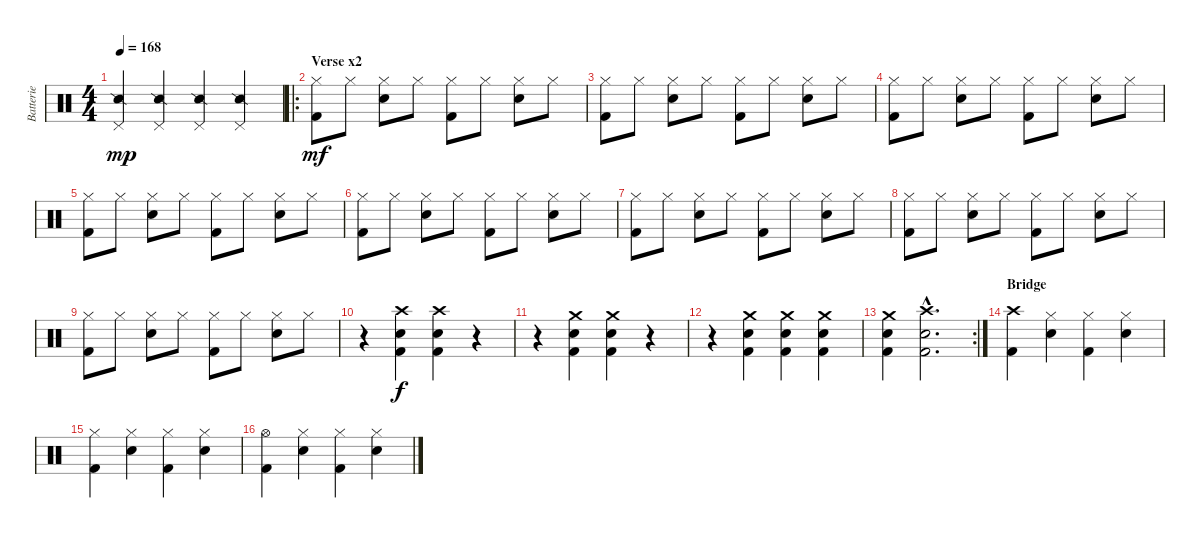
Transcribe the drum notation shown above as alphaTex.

\track ("Batterie" "Batterie") {instrument percussion}
\staff {score}
\articulation defaults
\ts (4 4)
\tempo 168
\clef neutral
\ks c
("Pedal Hi-Hat (hit)" "Snare (side stick) 2").4{dy mp} ("Pedal Hi-Hat (hit)" "Snare (side stick) 2").4 ("Pedal Hi-Hat (hit)" "Snare (side stick) 2").4 ("Pedal Hi-Hat (hit)" "Snare (side stick) 2").4 |
\ro
\section ("" "Verse x2")
("Hi-Hat (closed)" "Kick (hit) 2").8{dy mf} "Hi-Hat (closed)".8 ("Hi-Hat (closed)" "Snare (hit) 2").8 "Hi-Hat (closed)".8 ("Hi-Hat (closed)" "Kick (hit) 2").8 "Hi-Hat (closed)".8 ("Hi-Hat (closed)" "Snare (hit) 2").8 "Hi-Hat (closed)".8 |
("Hi-Hat (closed)" "Kick (hit) 2").8 "Hi-Hat (closed)".8 ("Hi-Hat (closed)" "Snare (hit) 2").8 "Hi-Hat (closed)".8 ("Hi-Hat (closed)" "Kick (hit) 2").8 "Hi-Hat (closed)".8 ("Hi-Hat (closed)" "Snare (hit) 2").8 "Hi-Hat (closed)".8 |
("Hi-Hat (closed)" "Kick (hit) 2").8 "Hi-Hat (closed)".8 ("Hi-Hat (closed)" "Snare (hit) 2").8 "Hi-Hat (closed)".8 ("Hi-Hat (closed)" "Kick (hit) 2").8 "Hi-Hat (closed)".8 ("Hi-Hat (closed)" "Snare (hit) 2").8 "Hi-Hat (closed)".8 |
("Hi-Hat (closed)" "Kick (hit) 2").8 "Hi-Hat (closed)".8 ("Hi-Hat (closed)" "Snare (hit) 2").8 "Hi-Hat (closed)".8 ("Hi-Hat (closed)" "Kick (hit) 2").8 "Hi-Hat (closed)".8 ("Hi-Hat (closed)" "Snare (hit) 2").8 "Hi-Hat (closed)".8 |
("Hi-Hat (closed)" "Kick (hit) 2").8 "Hi-Hat (closed)".8 ("Hi-Hat (closed)" "Snare (hit) 2").8 "Hi-Hat (closed)".8 ("Hi-Hat (closed)" "Kick (hit) 2").8 "Hi-Hat (closed)".8 ("Hi-Hat (closed)" "Snare (hit) 2").8 "Hi-Hat (closed)".8 |
("Hi-Hat (closed)" "Kick (hit) 2").8 "Hi-Hat (closed)".8 ("Hi-Hat (closed)" "Snare (hit) 2").8 "Hi-Hat (closed)".8 ("Hi-Hat (closed)" "Kick (hit) 2").8 "Hi-Hat (closed)".8 ("Hi-Hat (closed)" "Snare (hit) 2").8 "Hi-Hat (closed)".8 |
("Hi-Hat (closed)" "Kick (hit) 2").8 "Hi-Hat (closed)".8 ("Hi-Hat (closed)" "Snare (hit) 2").8 "Hi-Hat (closed)".8 ("Hi-Hat (closed)" "Kick (hit) 2").8 "Hi-Hat (closed)".8 ("Hi-Hat (closed)" "Snare (hit) 2").8 "Hi-Hat (closed)".8 |
("Hi-Hat (closed)" "Kick (hit) 2").8 "Hi-Hat (closed)".8 ("Hi-Hat (closed)" "Snare (hit) 2").8 "Hi-Hat (closed)".8 ("Hi-Hat (closed)" "Kick (hit) 2").8 "Hi-Hat (closed)".8 ("Hi-Hat (closed)" "Snare (hit) 2").8 "Hi-Hat (closed)".8 |
r.4 ("Crash high (hit)" "Snare (hit) 2" "Kick (hit) 2").4{dy f} ("Crash high (hit)" "Snare (hit) 2" "Kick (hit) 2").4 r.4 |
r.4 ("Crash medium (hit)" "Snare (hit) 2" "Kick (hit) 2").4 ("Crash medium (hit)" "Snare (hit) 2" "Kick (hit) 2").4 r.4 |
r.4 ("Crash medium (hit)" "Snare (hit) 2" "Kick (hit) 2").4 ("Crash medium (hit)" "Snare (hit) 2" "Kick (hit) 2").4 ("Crash medium (hit)" "Snare (hit) 2" "Kick (hit) 2").4 |
\rc 2
("Crash medium (hit)" "Snare (hit) 2" "Kick (hit) 2").4 ("Crash high (hit)"{hac} "Snare (hit) 2"{hac} "Kick (hit) 2"{hac}).2{d} |
\section ("" "Bridge")
("Crash high (hit)" "Kick (hit) 2").4 ("Hi-Hat (closed)" "Snare (hit) 2").4 ("Hi-Hat (closed)" "Kick (hit) 2").4 ("Hi-Hat (closed)" "Snare (hit) 2").4 |
("Hi-Hat (closed)" "Kick (hit) 2").4 ("Hi-Hat (closed)" "Snare (hit) 2").4 ("Hi-Hat (closed)" "Kick (hit) 2").4 ("Hi-Hat (closed)" "Snare (hit) 2").4 |
("Hi-Hat (open)" "Kick (hit) 2").4 ("Hi-Hat (closed)" "Snare (hit) 2").4 ("Hi-Hat (closed)" "Kick (hit) 2").4 ("Hi-Hat (closed)" "Snare (hit) 2").4
